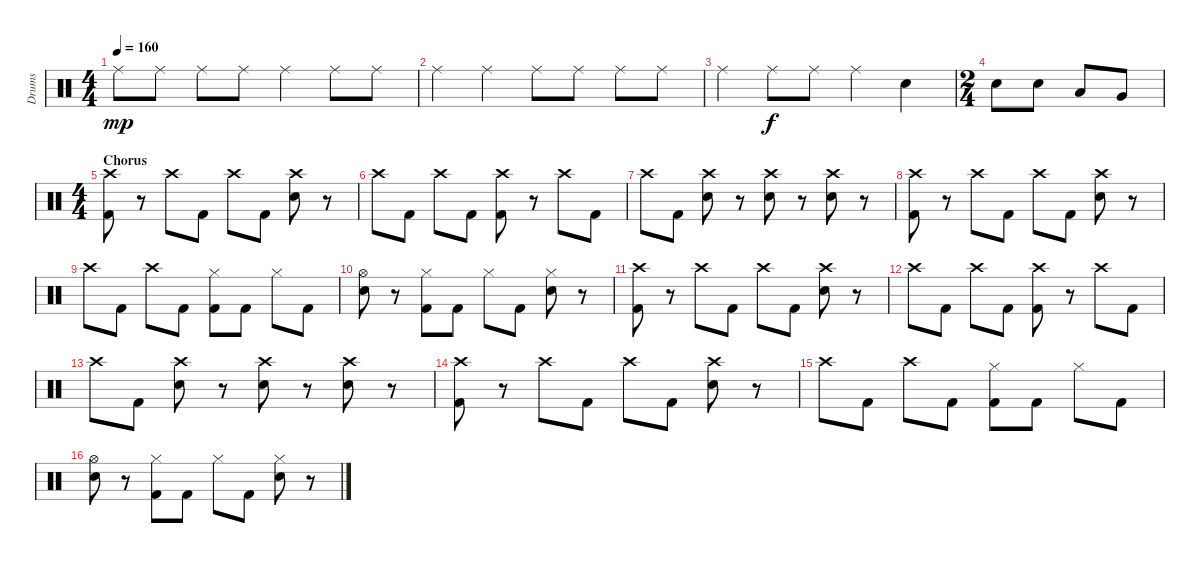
\track ("Drums" "Drums") {instrument percussion}
\staff {score}
\articulation defaults
\ts (4 4)
\tempo 160
\clef neutral
\ks c "Ride (middle)".8{dy mp} "Ride (middle)".8 "Ride (middle)".8 "Ride (middle)".8 "Ride (middle)".4 "Ride (middle)".8 "Ride (middle)".8
|
"Ride (middle)".4 "Ride (middle)".4 "Ride (middle)".8 "Ride (middle)".8 "Ride (middle)".8 "Ride (middle)".8 |
"Ride (middle)".4 "Ride (middle)".8{dy f} "Ride (middle)".8 "Ride (middle)".4 "Electric Snare (hit)".4 |
\ts (2 4)
"Electric Snare (hit)".8 "Electric Snare (hit)".8 "Low Tom (hit)".8 "Very Low Tom (hit)".8 |
\ts (4 4)
\section ("" "Chorus")
("Kick (hit) 2" "Crash high (hit)").8 r.8 "Crash high (hit)".8 "Kick (hit) 2".8 "Crash high (hit)".8 "Kick (hit) 2".8 ("Electric Snare (hit)" "Crash high (hit)").8 r.8 |
"Crash high (hit)".8 "Kick (hit) 2".8 "Crash high (hit)".8 "Kick (hit) 2".8 ("Kick (hit) 2" "Crash high (hit)").8 r.8 "Crash high (hit)".8 "Kick (hit) 2".8 |
"Crash high (hit)".8 "Kick (hit) 2".8 ("Electric Snare (hit)" "Crash high (hit)").8 r.8 ("Electric Snare (hit)" "Crash high (hit)").8 r.8 ("Electric Snare (hit)" "Crash high (hit)").8 r.8 |
("Kick (hit) 2" "Crash high (hit)").8 r.8 "Crash high (hit)".8 "Kick (hit) 2".8 "Crash high (hit)".8 "Kick (hit) 2".8 ("Electric Snare (hit)" "Crash high (hit)").8 r.8 |
"Crash high (hit)".8 "Kick (hit) 2".8 "Crash high (hit)".8 "Kick (hit) 2".8 ("Kick (hit) 2" "Hi-Hat (closed)").8 "Kick (hit) 2".8 "Hi-Hat (closed)".8 "Kick (hit) 2".8 |
("Electric Snare (hit)" "Hi-Hat (open)").8 r.8 ("Kick (hit) 2" "Hi-Hat (closed)").8 "Kick (hit) 2".8 "Hi-Hat (closed)".8 "Kick (hit) 2".8 ("Electric Snare (hit)" "Hi-Hat (closed)").8 r.8 |
("Kick (hit) 2" "Crash high (hit)").8 r.8 "Crash high (hit)".8 "Kick (hit) 2".8 "Crash high (hit)".8 "Kick (hit) 2".8 ("Electric Snare (hit)" "Crash high (hit)").8 r.8 |
"Crash high (hit)".8 "Kick (hit) 2".8 "Crash high (hit)".8 "Kick (hit) 2".8 ("Kick (hit) 2" "Crash high (hit)").8 r.8 "Crash high (hit)".8 "Kick (hit) 2".8 |
"Crash high (hit)".8 "Kick (hit) 2".8 ("Electric Snare (hit)" "Crash high (hit)").8 r.8 ("Electric Snare (hit)" "Crash high (hit)").8 r.8 ("Electric Snare (hit)" "Crash high (hit)").8 r.8 |
("Kick (hit) 2" "Crash high (hit)").8 r.8 "Crash high (hit)".8 "Kick (hit) 2".8 "Crash high (hit)".8 "Kick (hit) 2".8 ("Electric Snare (hit)" "Crash high (hit)").8 r.8 |
"Crash high (hit)".8 "Kick (hit) 2".8 "Crash high (hit)".8 "Kick (hit) 2".8 ("Kick (hit) 2" "Hi-Hat (closed)").8 "Kick (hit) 2".8 "Hi-Hat (closed)".8 "Kick (hit) 2".8 |
("Electric Snare (hit)" "Hi-Hat (open)").8 r.8 ("Kick (hit) 2" "Hi-Hat (closed)").8 "Kick (hit) 2".8 "Hi-Hat (closed)".8 "Kick (hit) 2".8 ("Electric Snare (hit)" "Hi-Hat (closed)").8 r.8
